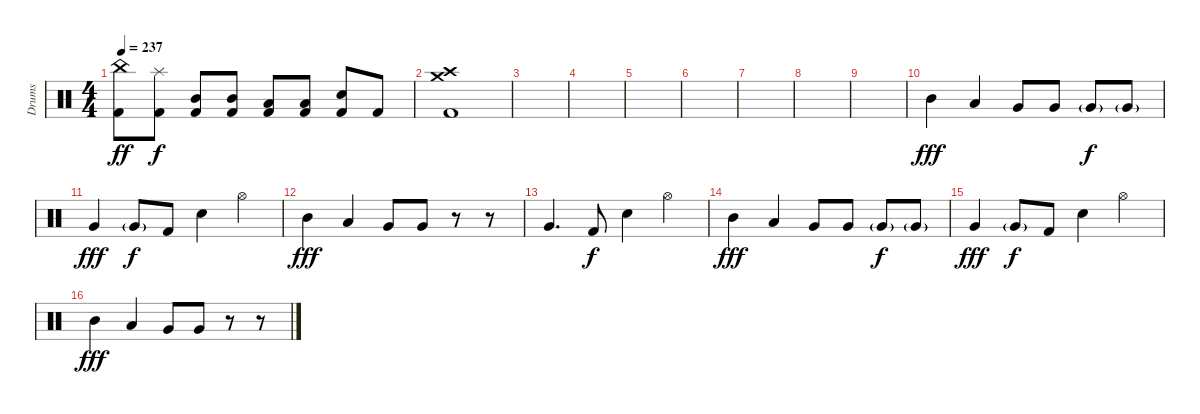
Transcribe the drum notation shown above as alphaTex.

\track ("Drums" "Drums") {instrument percussion}
\staff {score}
\articulation defaults
\ts (4 4)
\tempo 237
\clef neutral
\ks c
("China (hit)" "Kick (hit) 2").8{dy ff} ("Splash (hit)" "Kick (hit) 2").8{dy f} ("Mid Tom (hit)" "Kick (hit) 2").8 ("Mid Tom (hit)" "Kick (hit) 2").8 ("Low Tom (hit)" "Kick (hit) 2").8 ("Low Tom (hit)" "Kick (hit) 2").8 ("Electric Snare (hit)" "Kick (hit) 2").8 "Kick (hit) 2".8 |
("Crash medium (hit)" "Crash high (hit)" "Kick (hit) 2").1 |
|
|
|
|
|
|
|
"Mid Tom (hit)".4{dy fff} "Low Tom (hit)".4 "Very Low Tom (hit)".8 "Very Low Tom (hit)".8 "Very Low Tom (hit)"{g}.8{dy f} "Very Low Tom (hit)"{g}.8 |
"Very Low Tom (hit)".4{dy fff} "Very Low Tom (hit)"{g}.8{dy f} "Kick (hit) 2".8 "Electric Snare (hit)".4 "Hi-Hat (open)".4 |
"Mid Tom (hit)".4{dy fff} "Low Tom (hit)".4 "Very Low Tom (hit)".8 "Very Low Tom (hit)".8 r.8 r.8 |
"Very Low Tom (hit)".4{d} "Kick (hit) 2".8{dy f} "Electric Snare (hit)".4 "Hi-Hat (open)".4 |
"Mid Tom (hit)".4{dy fff} "Low Tom (hit)".4 "Very Low Tom (hit)".8 "Very Low Tom (hit)".8 "Very Low Tom (hit)"{g}.8{dy f} "Very Low Tom (hit)"{g}.8 |
"Very Low Tom (hit)".4{dy fff} "Very Low Tom (hit)"{g}.8{dy f} "Kick (hit) 2".8 "Electric Snare (hit)".4 "Hi-Hat (open)".4 |
"Mid Tom (hit)".4{dy fff} "Low Tom (hit)".4 "Very Low Tom (hit)".8 "Very Low Tom (hit)".8 r.8 r.8
